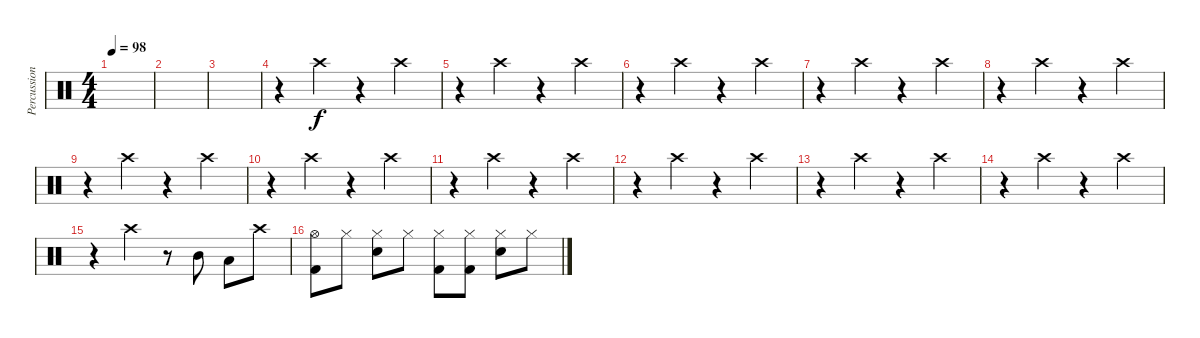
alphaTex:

\track ("Percussion" "Percussion") {instrument percussion}
\staff {score}
\articulation defaults
\ts (4 4)
\tempo 98
\clef neutral
\ks c
|
|
|
r.4 "Crash high (hit)".4 r.4 "Crash high (hit)".4 |
r.4 "Crash high (hit)".4 r.4 "Crash high (hit)".4 |
r.4 "Crash high (hit)".4 r.4 "Crash high (hit)".4 |
r.4 "Crash high (hit)".4 r.4 "Crash high (hit)".4 |
r.4 "Crash high (hit)".4 r.4 "Crash high (hit)".4 |
r.4 "Crash high (hit)".4 r.4 "Crash high (hit)".4 |
r.4 "Crash high (hit)".4 r.4 "Crash high (hit)".4 |
r.4 "Crash high (hit)".4 r.4 "Crash high (hit)".4 |
r.4 "Crash high (hit)".4 r.4 "Crash high (hit)".4 |
r.4 "Crash high (hit)".4 r.4 "Crash high (hit)".4 |
r.4 "Crash high (hit)".4 r.4 "Crash high (hit)".4 |
r.4 "Crash high (hit)".4 r.8 "Mid Tom (hit)".8 "Low Tom (hit)".8 "Crash high (hit)".8 |
("Hi-Hat (open)" "Kick (hit) 2").8 "Hi-Hat (closed)".8 ("Hi-Hat (closed)" "Snare (hit) 2").8 "Hi-Hat (closed)".8 ("Hi-Hat (closed)" "Kick (hit) 2").8 ("Hi-Hat (closed)" "Kick (hit) 2").8 ("Hi-Hat (closed)" "Snare (hit) 2").8 "Hi-Hat (closed)".8
